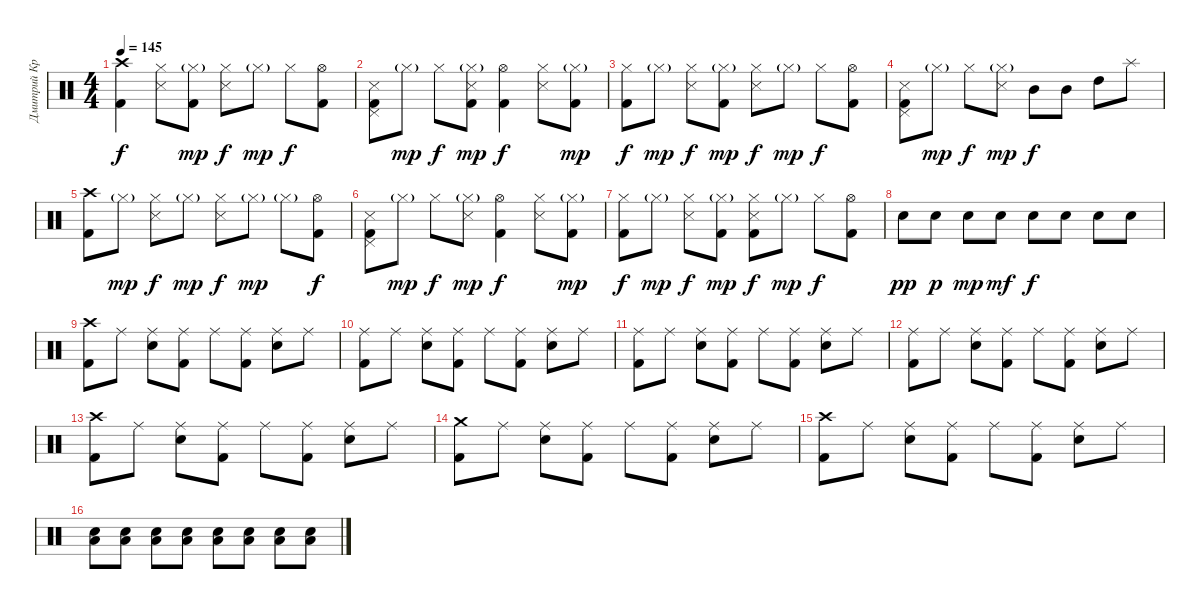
\track ("Дмитрий Кривенков" "Дмитрий Кр") {instrument percussion}
\staff {score}
\articulation defaults
\ts (4 4)
\tempo 145
\clef neutral
\ks c
("Crash high (hit)" "Kick (hit) 2").4{dy f} ("Hi-Hat (closed)" "Snare (side stick) 3").8 ("Hi-Hat (closed)"{g} "Kick (hit) 2").8{dy mp} ("Hi-Hat (closed)" "Snare (side stick) 3").8{dy f} "Hi-Hat (closed)"{g}.8{dy mp} "Hi-Hat (closed)".8{dy f} ("Hi-Hat (open)" "Kick (hit) 2").8 |
("Pedal Hi-Hat (hit)" "Snare (side stick) 3" "Kick (hit) 2").8 "Hi-Hat (closed)"{g}.8{dy mp} "Hi-Hat (closed)".8{dy f} ("Hi-Hat (closed)"{g} "Snare (side stick) 3" "Kick (hit) 2").8{dy mp} ("Hi-Hat (open)" "Kick (hit) 2").4{dy f} ("Hi-Hat (closed)" "Snare (side stick) 3").8 ("Hi-Hat (closed)"{g} "Kick (hit) 2").8{dy mp} |
("Hi-Hat (closed)" "Kick (hit) 2").8{dy f} "Hi-Hat (closed)"{g}.8{dy mp} ("Hi-Hat (closed)" "Snare (side stick) 3").8{dy f} ("Hi-Hat (closed)"{g} "Kick (hit) 2").8{dy mp} ("Hi-Hat (closed)" "Snare (side stick) 3").8{dy f} "Hi-Hat (closed)"{g}.8{dy mp} "Hi-Hat (closed)".8{dy f} ("Hi-Hat (open)" "Kick (hit) 2").8 |
("Pedal Hi-Hat (hit)" "Snare (side stick) 3" "Kick (hit) 2").8 "Hi-Hat (closed)"{g}.8{dy mp} "Hi-Hat (closed)".8{dy f} ("Hi-Hat (closed)"{g} "Snare (side stick) 3").8{dy mp} "Mid Tom (hit)".8{dy f} "Mid Tom (hit)".8 "High Tom (hit)".8 "Splash (hit)".8 |
("Crash high (hit)" "Kick (hit) 2").8 "Hi-Hat (closed)"{g}.8{dy mp} ("Hi-Hat (closed)" "Snare (side stick) 3").8{dy f} "Hi-Hat (closed)"{g}.8{dy mp} ("Hi-Hat (closed)" "Snare (side stick) 3").8{dy f} "Hi-Hat (closed)"{g}.8{dy mp} "Hi-Hat (closed)"{g}.8 ("Hi-Hat (open)" "Kick (hit) 2").8{dy f} |
("Pedal Hi-Hat (hit)" "Snare (side stick) 3" "Kick (hit) 2").8 "Hi-Hat (closed)"{g}.8{dy mp} "Hi-Hat (closed)".8{dy f} ("Hi-Hat (closed)"{g} "Snare (side stick) 3").8{dy mp} ("Hi-Hat (open)" "Kick (hit) 2").4{dy f} ("Hi-Hat (closed)" "Snare (side stick) 3").8 ("Hi-Hat (closed)"{g} "Kick (hit) 2").8{dy mp} |
("Hi-Hat (closed)" "Kick (hit) 2").8{dy f} "Hi-Hat (closed)"{g}.8{dy mp} ("Hi-Hat (closed)" "Snare (side stick) 3").8{dy f} ("Hi-Hat (closed)"{g} "Kick (hit) 2").8{dy mp} ("Hi-Hat (closed)" "Snare (side stick) 3" "Kick (hit) 2").8{dy f} "Hi-Hat (closed)"{g}.8{dy mp} "Hi-Hat (closed)".8{dy f} ("Hi-Hat (open)" "Kick (hit) 2").8 |
"Electric Snare (hit)".8{dy pp} "Electric Snare (hit)".8{dy p} "Electric Snare (hit)".8{dy mp} "Electric Snare (hit)".8{dy mf} "Electric Snare (hit)".8{dy f} "Electric Snare (hit)".8 "Electric Snare (hit)".8 "Electric Snare (hit)".8 |
("Crash high (hit)" "Kick (hit) 2").8 "Ride (middle)".8 ("Ride (middle)" "Electric Snare (hit)").8 ("Ride (middle)" "Kick (hit) 2").8 "Ride (middle)".8 ("Ride (middle)" "Kick (hit) 2").8 ("Ride (middle)" "Electric Snare (hit)").8 "Ride (middle)".8 |
("Ride (middle)" "Kick (hit) 2").8 "Ride (middle)".8 ("Ride (middle)" "Electric Snare (hit)").8 ("Ride (middle)" "Kick (hit) 2").8 "Ride (middle)".8 ("Ride (middle)" "Kick (hit) 2").8 ("Ride (middle)" "Electric Snare (hit)").8 "Ride (middle)".8 |
("Ride (middle)" "Kick (hit) 2").8 "Ride (middle)".8 ("Ride (middle)" "Electric Snare (hit)").8 ("Ride (middle)" "Kick (hit) 2").8 "Ride (middle)".8 ("Ride (middle)" "Kick (hit) 2").8 ("Ride (middle)" "Electric Snare (hit)").8 "Ride (middle)".8 |
("Ride (middle)" "Kick (hit) 2").8 "Ride (middle)".8 ("Ride (middle)" "Electric Snare (hit)").8 ("Ride (middle)" "Kick (hit) 2").8 "Ride (middle)".8 ("Ride (middle)" "Kick (hit) 2").8 ("Ride (middle)" "Electric Snare (hit)").8 "Ride (middle)".8 |
("Crash high (hit)" "Kick (hit) 2").8 "Ride (middle)".8 ("Ride (middle)" "Electric Snare (hit)").8 ("Ride (middle)" "Kick (hit) 2").8 "Ride (middle)".8 ("Ride (middle)" "Kick (hit) 2").8 ("Ride (middle)" "Electric Snare (hit)").8 "Ride (middle)".8 |
("Crash medium (hit)" "Kick (hit) 2").8 "Ride (middle)".8 ("Ride (middle)" "Electric Snare (hit)").8 ("Ride (middle)" "Kick (hit) 2").8 "Ride (middle)".8 ("Ride (middle)" "Kick (hit) 2").8 ("Ride (middle)" "Electric Snare (hit)").8 "Ride (middle)".8 |
("Crash high (hit)" "Kick (hit) 2").8 "Ride (middle)".8 ("Ride (middle)" "Electric Snare (hit)").8 ("Ride (middle)" "Kick (hit) 2").8 "Ride (middle)".8 ("Ride (middle)" "Kick (hit) 2").8 ("Ride (middle)" "Electric Snare (hit)").8 "Ride (middle)".8 |
("Electric Snare (hit)" "Low Floor Tom (hit)").8 ("Electric Snare (hit)" "Low Floor Tom (hit)").8 ("Electric Snare (hit)" "Low Floor Tom (hit)").8 ("Electric Snare (hit)" "Low Floor Tom (hit)").8 ("Electric Snare (hit)" "Low Floor Tom (hit)").8 ("Electric Snare (hit)" "Low Floor Tom (hit)").8 ("Electric Snare (hit)" "Low Floor Tom (hit)").8 ("Electric Snare (hit)" "Low Floor Tom (hit)").8
